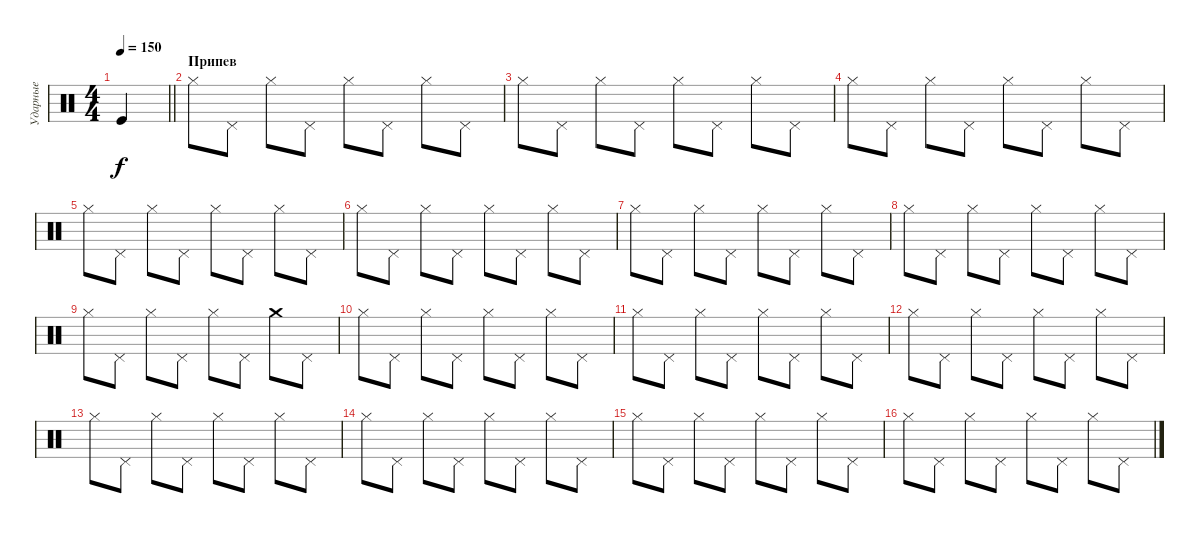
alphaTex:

\track ("Ударные" "Ударные") {instrument percussion}
\staff {score}
\articulation defaults
\ts (4 4)
\tempo 150
\clef neutral
\barLineRight lightlight
\ks c "Kick (hit)".4{dy f}
|
\section ("" "Припев")
"Hi-Hat (closed)".8 "Pedal Hi-Hat (hit)".8 "Hi-Hat (closed)".8 "Pedal Hi-Hat (hit)".8 "Hi-Hat (closed)".8 "Pedal Hi-Hat (hit)".8 "Hi-Hat (closed)".8 "Pedal Hi-Hat (hit)".8 |
"Hi-Hat (closed)".8 "Pedal Hi-Hat (hit)".8 "Hi-Hat (closed)".8 "Pedal Hi-Hat (hit)".8 "Hi-Hat (closed)".8 "Pedal Hi-Hat (hit)".8 "Hi-Hat (closed)".8 "Pedal Hi-Hat (hit)".8 |
"Hi-Hat (closed)".8 "Pedal Hi-Hat (hit)".8 "Hi-Hat (closed)".8 "Pedal Hi-Hat (hit)".8 "Hi-Hat (closed)".8 "Pedal Hi-Hat (hit)".8 "Hi-Hat (closed)".8 "Pedal Hi-Hat (hit)".8 |
"Hi-Hat (closed)".8 "Pedal Hi-Hat (hit)".8 "Hi-Hat (closed)".8 "Pedal Hi-Hat (hit)".8 "Hi-Hat (closed)".8 "Pedal Hi-Hat (hit)".8 "Hi-Hat (closed)".8 "Pedal Hi-Hat (hit)".8 |
"Hi-Hat (closed)".8 "Pedal Hi-Hat (hit)".8 "Hi-Hat (closed)".8 "Pedal Hi-Hat (hit)".8 "Hi-Hat (closed)".8 "Pedal Hi-Hat (hit)".8 "Hi-Hat (closed)".8 "Pedal Hi-Hat (hit)".8 |
"Hi-Hat (closed)".8 "Pedal Hi-Hat (hit)".8 "Hi-Hat (closed)".8 "Pedal Hi-Hat (hit)".8 "Hi-Hat (closed)".8 "Pedal Hi-Hat (hit)".8 "Hi-Hat (closed)".8 "Pedal Hi-Hat (hit)".8 |
"Hi-Hat (closed)".8 "Pedal Hi-Hat (hit)".8 "Hi-Hat (closed)".8 "Pedal Hi-Hat (hit)".8 "Hi-Hat (closed)".8 "Pedal Hi-Hat (hit)".8 "Hi-Hat (closed)".8 "Pedal Hi-Hat (hit)".8 |
"Hi-Hat (closed)".8 "Pedal Hi-Hat (hit)".8 "Hi-Hat (closed)".8 "Pedal Hi-Hat (hit)".8 "Hi-Hat (closed)".8 "Pedal Hi-Hat (hit)".8 "Crash medium (hit)".8 "Pedal Hi-Hat (hit)".8 |
"Hi-Hat (closed)".8 "Pedal Hi-Hat (hit)".8 "Hi-Hat (closed)".8 "Pedal Hi-Hat (hit)".8 "Hi-Hat (closed)".8 "Pedal Hi-Hat (hit)".8 "Hi-Hat (closed)".8 "Pedal Hi-Hat (hit)".8 |
"Hi-Hat (closed)".8 "Pedal Hi-Hat (hit)".8 "Hi-Hat (closed)".8 "Pedal Hi-Hat (hit)".8 "Hi-Hat (closed)".8 "Pedal Hi-Hat (hit)".8 "Hi-Hat (closed)".8 "Pedal Hi-Hat (hit)".8 |
"Hi-Hat (closed)".8 "Pedal Hi-Hat (hit)".8 "Hi-Hat (closed)".8 "Pedal Hi-Hat (hit)".8 "Hi-Hat (closed)".8 "Pedal Hi-Hat (hit)".8 "Hi-Hat (closed)".8 "Pedal Hi-Hat (hit)".8 |
"Hi-Hat (closed)".8 "Pedal Hi-Hat (hit)".8 "Hi-Hat (closed)".8 "Pedal Hi-Hat (hit)".8 "Hi-Hat (closed)".8 "Pedal Hi-Hat (hit)".8 "Hi-Hat (closed)".8 "Pedal Hi-Hat (hit)".8 |
"Hi-Hat (closed)".8 "Pedal Hi-Hat (hit)".8 "Hi-Hat (closed)".8 "Pedal Hi-Hat (hit)".8 "Hi-Hat (closed)".8 "Pedal Hi-Hat (hit)".8 "Hi-Hat (closed)".8 "Pedal Hi-Hat (hit)".8 |
"Hi-Hat (closed)".8 "Pedal Hi-Hat (hit)".8 "Hi-Hat (closed)".8 "Pedal Hi-Hat (hit)".8 "Hi-Hat (closed)".8 "Pedal Hi-Hat (hit)".8 "Hi-Hat (closed)".8 "Pedal Hi-Hat (hit)".8 |
"Hi-Hat (closed)".8 "Pedal Hi-Hat (hit)".8 "Hi-Hat (closed)".8 "Pedal Hi-Hat (hit)".8 "Hi-Hat (closed)".8 "Pedal Hi-Hat (hit)".8 "Hi-Hat (closed)".8 "Pedal Hi-Hat (hit)".8
